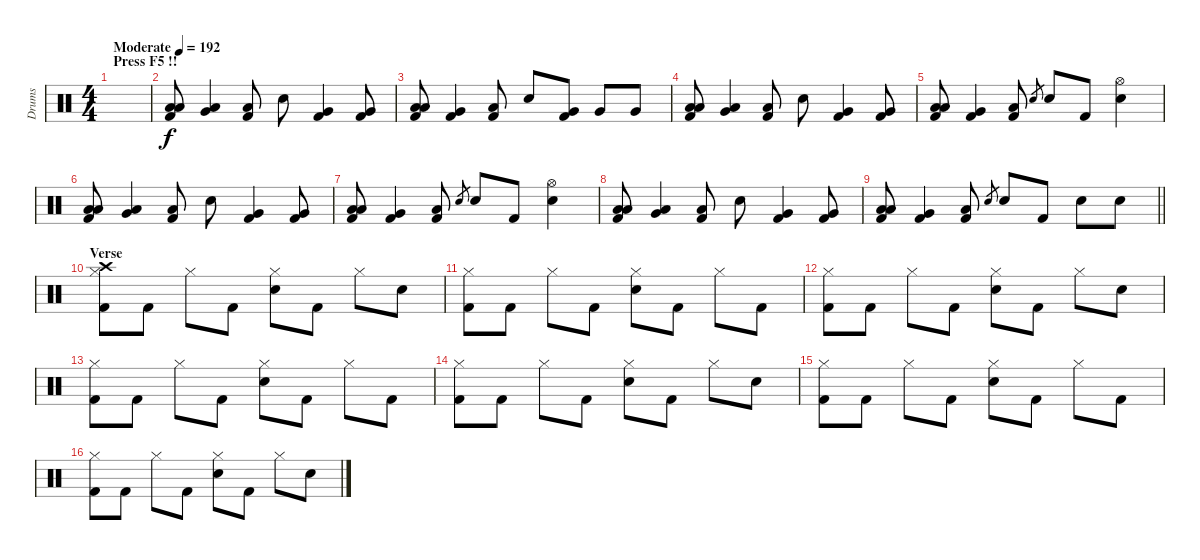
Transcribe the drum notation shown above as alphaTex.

\track ("Drums" "Drums") {instrument percussion}
\staff {score}
\articulation defaults
\ts (4 4)
\section ("" "Press F5 !!")
\tempo (192 "Moderate")
\clef neutral
\ks c
|
("Low Tom (hit)" "Low Floor Tom (hit)" "Kick (hit) 2").8 ("Very Low Tom (hit)" "Low Floor Tom (hit)").4 ("Low Tom (hit)" "Kick (hit) 2").8 "Electric Snare (hit)".8 ("Very Low Tom (hit)" "Kick (hit) 2").4 ("Very Low Tom (hit)" "Kick (hit) 2").8 |
("Low Tom (hit)" "Low Floor Tom (hit)" "Kick (hit) 2").8 ("Very Low Tom (hit)" "Kick (hit) 2").4 ("Low Tom (hit)" "Kick (hit) 2").8 "Electric Snare (hit)".8 ("Very Low Tom (hit)" "Kick (hit) 2").8 "Very Low Tom (hit)".8 "Very Low Tom (hit)".8 |
("Low Tom (hit)" "Low Floor Tom (hit)" "Kick (hit) 2").8 ("Very Low Tom (hit)" "Low Floor Tom (hit)").4 ("Low Tom (hit)" "Kick (hit) 2").8 "Electric Snare (hit)".8 ("Very Low Tom (hit)" "Kick (hit) 2").4 ("Very Low Tom (hit)" "Kick (hit) 2").8 |
("Low Tom (hit)" "Low Floor Tom (hit)" "Kick (hit) 2").8 ("Very Low Tom (hit)" "Kick (hit) 2").4 ("Low Tom (hit)" "Kick (hit) 2").8 "Electric Snare (hit)".8{gr} "Electric Snare (hit)".8 "Kick (hit) 2".8 ("Hi-Hat (open)" "Electric Snare (hit)").4 |
("Low Tom (hit)" "Low Floor Tom (hit)" "Kick (hit) 2").8 ("Very Low Tom (hit)" "Low Floor Tom (hit)").4 ("Low Tom (hit)" "Kick (hit) 2").8 "Electric Snare (hit)".8 ("Very Low Tom (hit)" "Kick (hit) 2").4 ("Very Low Tom (hit)" "Kick (hit) 2").8 |
("Low Tom (hit)" "Low Floor Tom (hit)" "Kick (hit) 2").8 ("Very Low Tom (hit)" "Kick (hit) 2").4 ("Low Tom (hit)" "Kick (hit) 2").8 "Electric Snare (hit)".8{gr} "Electric Snare (hit)".8 "Kick (hit) 2".8 ("Hi-Hat (open)" "Electric Snare (hit)").4 |
("Low Tom (hit)" "Low Floor Tom (hit)" "Kick (hit) 2").8 ("Very Low Tom (hit)" "Low Floor Tom (hit)").4 ("Low Tom (hit)" "Kick (hit) 2").8 "Electric Snare (hit)".8 ("Very Low Tom (hit)" "Kick (hit) 2").4 ("Very Low Tom (hit)" "Kick (hit) 2").8 |
\barLineRight lightlight
("Low Tom (hit)" "Low Floor Tom (hit)" "Kick (hit) 2").8 ("Very Low Tom (hit)" "Kick (hit) 2").4 ("Low Tom (hit)" "Kick (hit) 2").8 "Electric Snare (hit)".8{gr} "Electric Snare (hit)".8 "Kick (hit) 2".8 "Electric Snare (hit)".8 "Electric Snare (hit)".8 |
\section ("" "Verse")
("Crash high (hit)" "Hi-Hat (closed)" "Kick (hit) 2").8 "Kick (hit) 2".8 "Hi-Hat (closed)".8 "Kick (hit) 2".8 ("Hi-Hat (closed)" "Electric Snare (hit)").8 "Kick (hit) 2".8 "Hi-Hat (closed)".8 "Electric Snare (hit)".8 |
("Hi-Hat (closed)" "Kick (hit) 2").8 "Kick (hit) 2".8 "Hi-Hat (closed)".8 "Kick (hit) 2".8 ("Hi-Hat (closed)" "Electric Snare (hit)").8 "Kick (hit) 2".8 "Hi-Hat (closed)".8 "Kick (hit) 2".8 |
("Hi-Hat (closed)" "Kick (hit) 2").8 "Kick (hit) 2".8 "Hi-Hat (closed)".8 "Kick (hit) 2".8 ("Hi-Hat (closed)" "Electric Snare (hit)").8 "Kick (hit) 2".8 "Hi-Hat (closed)".8 "Electric Snare (hit)".8 |
("Hi-Hat (closed)" "Kick (hit) 2").8 "Kick (hit) 2".8 "Hi-Hat (closed)".8 "Kick (hit) 2".8 ("Hi-Hat (closed)" "Electric Snare (hit)").8 "Kick (hit) 2".8 "Hi-Hat (closed)".8 "Kick (hit) 2".8 |
("Hi-Hat (closed)" "Kick (hit) 2").8 "Kick (hit) 2".8 "Hi-Hat (closed)".8 "Kick (hit) 2".8 ("Hi-Hat (closed)" "Electric Snare (hit)").8 "Kick (hit) 2".8 "Hi-Hat (closed)".8 "Electric Snare (hit)".8 |
("Hi-Hat (closed)" "Kick (hit) 2").8 "Kick (hit) 2".8 "Hi-Hat (closed)".8 "Kick (hit) 2".8 ("Hi-Hat (closed)" "Electric Snare (hit)").8 "Kick (hit) 2".8 "Hi-Hat (closed)".8 "Kick (hit) 2".8 |
("Hi-Hat (closed)" "Kick (hit) 2").8 "Kick (hit) 2".8 "Hi-Hat (closed)".8 "Kick (hit) 2".8 ("Hi-Hat (closed)" "Electric Snare (hit)").8 "Kick (hit) 2".8 "Hi-Hat (closed)".8 "Electric Snare (hit)".8
